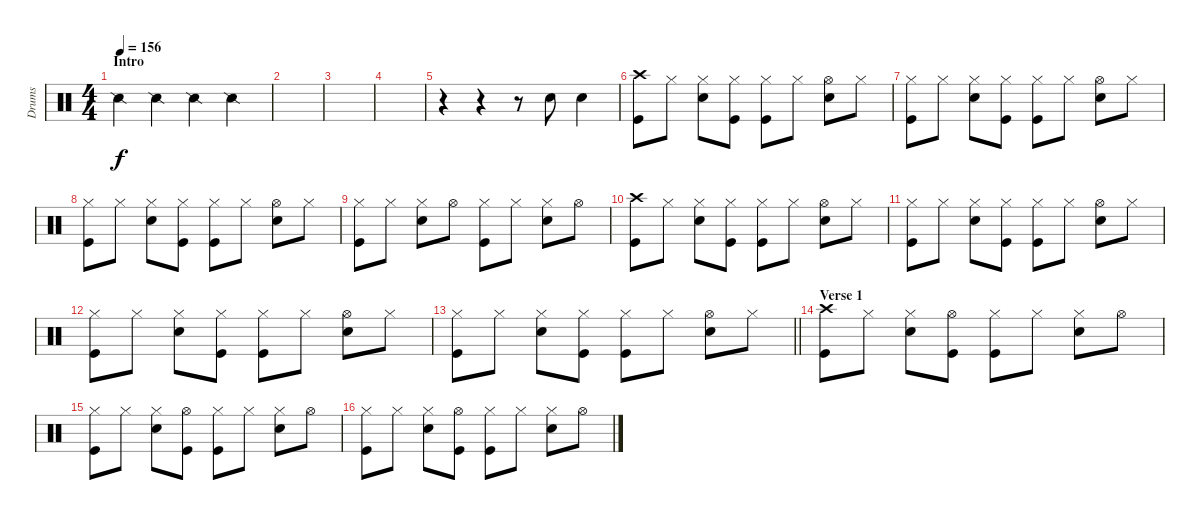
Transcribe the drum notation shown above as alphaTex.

\track ("Drums" "Drums") {instrument percussion}
\staff {score}
\articulation defaults
\ts (4 4)
\section ("" "Intro")
\tempo 156
\tempo 167
\tempo 156
\clef neutral
\ks c "Snare (side stick) 2".4{dy f} "Snare (side stick) 2".4 "Snare (side stick) 2".4 "Snare (side stick) 2".4
|
|
|
|
r.4 r.4 r.8 "Snare (hit) 2".8 "Snare (hit) 2".4 |
("Crash high (hit)" "Kick (hit)").8 "Hi-Hat (closed)".8 ("Hi-Hat (closed)" "Snare (hit) 2").8 ("Hi-Hat (closed)" "Kick (hit)").8 ("Hi-Hat (closed)" "Kick (hit)").8 "Hi-Hat (closed)".8 ("Hi-Hat (open)" "Snare (hit) 2").8 "Hi-Hat (closed)".8 |
("Hi-Hat (closed)" "Kick (hit)").8 "Hi-Hat (closed)".8 ("Hi-Hat (closed)" "Snare (hit) 2").8 ("Hi-Hat (closed)" "Kick (hit)").8 ("Hi-Hat (closed)" "Kick (hit)").8 "Hi-Hat (closed)".8 ("Hi-Hat (open)" "Snare (hit) 2").8 "Hi-Hat (closed)".8 |
("Hi-Hat (closed)" "Kick (hit)").8 "Hi-Hat (closed)".8 ("Hi-Hat (closed)" "Snare (hit) 2").8 ("Hi-Hat (closed)" "Kick (hit)").8 ("Hi-Hat (closed)" "Kick (hit)").8 "Hi-Hat (closed)".8 ("Hi-Hat (open)" "Snare (hit) 2").8 "Hi-Hat (closed)".8 |
("Hi-Hat (closed)" "Kick (hit)").8 "Hi-Hat (closed)".8 ("Hi-Hat (closed)" "Snare (hit) 2").8 "Hi-Hat (open)".8 ("Hi-Hat (closed)" "Kick (hit)").8 "Hi-Hat (closed)".8 ("Hi-Hat (closed)" "Snare (hit) 2").8 "Hi-Hat (open)".8 |
("Crash high (hit)" "Kick (hit)").8 "Hi-Hat (closed)".8 ("Hi-Hat (closed)" "Snare (hit) 2").8 ("Hi-Hat (closed)" "Kick (hit)").8 ("Hi-Hat (closed)" "Kick (hit)").8 "Hi-Hat (closed)".8 ("Hi-Hat (open)" "Snare (hit) 2").8 "Hi-Hat (closed)".8 |
("Hi-Hat (closed)" "Kick (hit)").8 "Hi-Hat (closed)".8 ("Hi-Hat (closed)" "Snare (hit) 2").8 ("Hi-Hat (closed)" "Kick (hit)").8 ("Hi-Hat (closed)" "Kick (hit)").8 "Hi-Hat (closed)".8 ("Hi-Hat (open)" "Snare (hit) 2").8 "Hi-Hat (closed)".8 |
("Hi-Hat (closed)" "Kick (hit)").8 "Hi-Hat (closed)".8 ("Hi-Hat (closed)" "Snare (hit) 2").8 ("Hi-Hat (closed)" "Kick (hit)").8 ("Hi-Hat (closed)" "Kick (hit)").8 "Hi-Hat (closed)".8 ("Hi-Hat (open)" "Snare (hit) 2").8 "Hi-Hat (closed)".8 |
\barLineRight lightlight
("Hi-Hat (closed)" "Kick (hit)").8 "Hi-Hat (closed)".8 ("Hi-Hat (closed)" "Snare (hit) 2").8 ("Hi-Hat (closed)" "Kick (hit)").8 ("Hi-Hat (closed)" "Kick (hit)").8 "Hi-Hat (closed)".8 ("Hi-Hat (open)" "Snare (hit) 2").8 "Hi-Hat (closed)".8 |
\section ("" "Verse 1")
("Crash high (hit)" "Kick (hit)").8 "Hi-Hat (closed)".8 ("Hi-Hat (closed)" "Snare (hit) 2").8 ("Hi-Hat (open)" "Kick (hit)").8 ("Hi-Hat (closed)" "Kick (hit)").8 "Hi-Hat (closed)".8 ("Hi-Hat (closed)" "Snare (hit) 2").8 "Hi-Hat (open)".8 |
("Hi-Hat (closed)" "Kick (hit)").8 "Hi-Hat (closed)".8 ("Hi-Hat (closed)" "Snare (hit) 2").8 ("Hi-Hat (open)" "Kick (hit)").8 ("Hi-Hat (closed)" "Kick (hit)").8 "Hi-Hat (closed)".8 ("Hi-Hat (closed)" "Snare (hit) 2").8 "Hi-Hat (open)".8 |
("Hi-Hat (closed)" "Kick (hit)").8 "Hi-Hat (closed)".8 ("Hi-Hat (closed)" "Snare (hit) 2").8 ("Hi-Hat (open)" "Kick (hit)").8 ("Hi-Hat (closed)" "Kick (hit)").8 "Hi-Hat (closed)".8 ("Hi-Hat (closed)" "Snare (hit) 2").8 "Hi-Hat (open)".8
